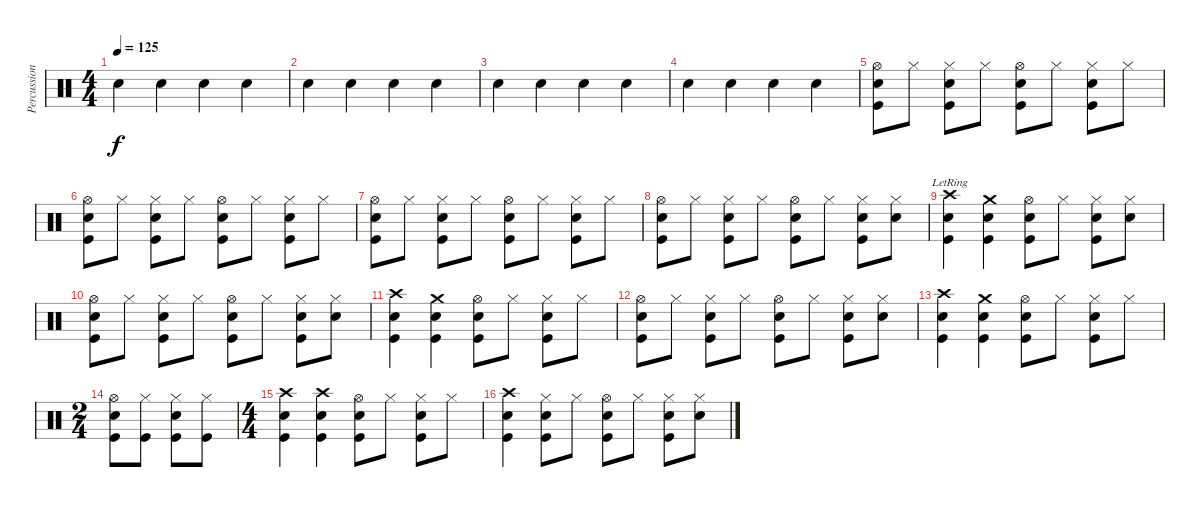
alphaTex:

\track ("Percussion" "Percussion") {instrument percussion}
\staff {score}
\articulation defaults
\ts (4 4)
\tempo 125
\clef neutral
\ks c "Snare (hit) 2".4{dy f} "Snare (hit) 2".4 "Snare (hit) 2".4 "Snare (hit) 2".4
|
"Snare (hit) 2".4 "Snare (hit) 2".4 "Snare (hit) 2".4 "Snare (hit) 2".4 |
"Snare (hit) 2".4 "Snare (hit) 2".4 "Snare (hit) 2".4 "Snare (hit) 2".4 |
"Snare (hit) 2".4 "Snare (hit) 2".4 "Snare (hit) 2".4 "Snare (hit) 2".4 |
("Hi-Hat (open)" "Snare (hit) 2" "Kick (hit)").8 "Hi-Hat (closed)".8 ("Hi-Hat (closed)" "Snare (hit) 2" "Kick (hit)").8 "Hi-Hat (closed)".8 ("Hi-Hat (open)" "Snare (hit) 2" "Kick (hit)").8 "Hi-Hat (closed)".8 ("Hi-Hat (closed)" "Snare (hit) 2" "Kick (hit)").8 "Hi-Hat (closed)".8 |
("Hi-Hat (open)" "Snare (hit) 2" "Kick (hit)").8 "Hi-Hat (closed)".8 ("Hi-Hat (closed)" "Snare (hit) 2" "Kick (hit)").8 "Hi-Hat (closed)".8 ("Hi-Hat (open)" "Snare (hit) 2" "Kick (hit)").8 "Hi-Hat (closed)".8 ("Hi-Hat (closed)" "Snare (hit) 2" "Kick (hit)").8 "Hi-Hat (closed)".8 |
("Hi-Hat (open)" "Snare (hit) 2" "Kick (hit)").8 "Hi-Hat (closed)".8 ("Hi-Hat (closed)" "Snare (hit) 2" "Kick (hit)").8 "Hi-Hat (closed)".8 ("Hi-Hat (open)" "Snare (hit) 2" "Kick (hit)").8 "Hi-Hat (closed)".8 ("Hi-Hat (closed)" "Snare (hit) 2" "Kick (hit)").8 "Hi-Hat (closed)".8 |
("Hi-Hat (open)" "Snare (hit) 2" "Kick (hit)").8 "Hi-Hat (closed)".8 ("Hi-Hat (closed)" "Snare (hit) 2" "Kick (hit)").8 "Hi-Hat (closed)".8 ("Hi-Hat (open)" "Snare (hit) 2" "Kick (hit)").8 "Hi-Hat (closed)".8 ("Hi-Hat (closed)" "Snare (hit) 2" "Kick (hit)").8 ("Hi-Hat (closed)" "Snare (hit) 2").8 |
("Crash high (hit)"{lr} "Snare (hit) 2" "Kick (hit)").4 ("Crash medium (hit)" "Snare (hit) 2" "Kick (hit)").4 ("Hi-Hat (open)" "Snare (hit) 2" "Kick (hit)").8 "Hi-Hat (closed)".8 ("Hi-Hat (closed)" "Snare (hit) 2" "Kick (hit)").8 ("Hi-Hat (closed)" "Snare (hit) 2").8 |
("Hi-Hat (open)" "Snare (hit) 2" "Kick (hit)").8 "Hi-Hat (closed)".8 ("Hi-Hat (closed)" "Snare (hit) 2" "Kick (hit)").8 "Hi-Hat (closed)".8 ("Hi-Hat (open)" "Snare (hit) 2" "Kick (hit)").8 "Hi-Hat (closed)".8 ("Hi-Hat (closed)" "Snare (hit) 2" "Kick (hit)").8 ("Hi-Hat (closed)" "Snare (hit) 2").8 |
("Crash high (hit)" "Snare (hit) 2" "Kick (hit)").4 ("Crash medium (hit)" "Snare (hit) 2" "Kick (hit)").4 ("Hi-Hat (open)" "Snare (hit) 2" "Kick (hit)").8 "Hi-Hat (closed)".8 ("Hi-Hat (closed)" "Snare (hit) 2" "Kick (hit)").8 "Hi-Hat (closed)".8 |
("Hi-Hat (open)" "Snare (hit) 2" "Kick (hit)").8 "Hi-Hat (closed)".8 ("Hi-Hat (closed)" "Snare (hit) 2" "Kick (hit)").8 "Hi-Hat (closed)".8 ("Hi-Hat (open)" "Snare (hit) 2" "Kick (hit)").8 "Hi-Hat (closed)".8 ("Hi-Hat (closed)" "Snare (hit) 2" "Kick (hit)").8 ("Hi-Hat (closed)" "Snare (hit) 2").8 |
("Crash high (hit)" "Snare (hit) 2" "Kick (hit)").4 ("Crash medium (hit)" "Snare (hit) 2" "Kick (hit)").4 ("Hi-Hat (open)" "Snare (hit) 2" "Kick (hit)").8 "Hi-Hat (closed)".8 ("Hi-Hat (closed)" "Snare (hit) 2" "Kick (hit)").8 "Hi-Hat (closed)".8 |
\ts (2 4)
("Hi-Hat (open)" "Snare (hit) 2" "Kick (hit)").8 ("Hi-Hat (closed)" "Kick (hit)").8 ("Hi-Hat (closed)" "Snare (hit) 2" "Kick (hit)").8 ("Hi-Hat (closed)" "Kick (hit)").8 |
\ts (4 4)
("Crash high (hit)" "Snare (hit) 2" "Kick (hit)").4 ("Crash high (hit)" "Snare (hit) 2" "Kick (hit)").4 ("Hi-Hat (open)" "Snare (hit) 2" "Kick (hit)").8 "Hi-Hat (closed)".8 ("Hi-Hat (closed)" "Snare (hit) 2" "Kick (hit)").8 "Hi-Hat (closed)".8 |
("Crash high (hit)" "Snare (hit) 2" "Kick (hit)").4 ("Hi-Hat (closed)" "Snare (hit) 2" "Kick (hit)").8 "Hi-Hat (closed)".8 ("Hi-Hat (open)" "Snare (hit) 2" "Kick (hit)").8 "Hi-Hat (closed)".8 ("Hi-Hat (closed)" "Snare (hit) 2" "Kick (hit)").8 ("Hi-Hat (closed)" "Snare (hit) 2").8
